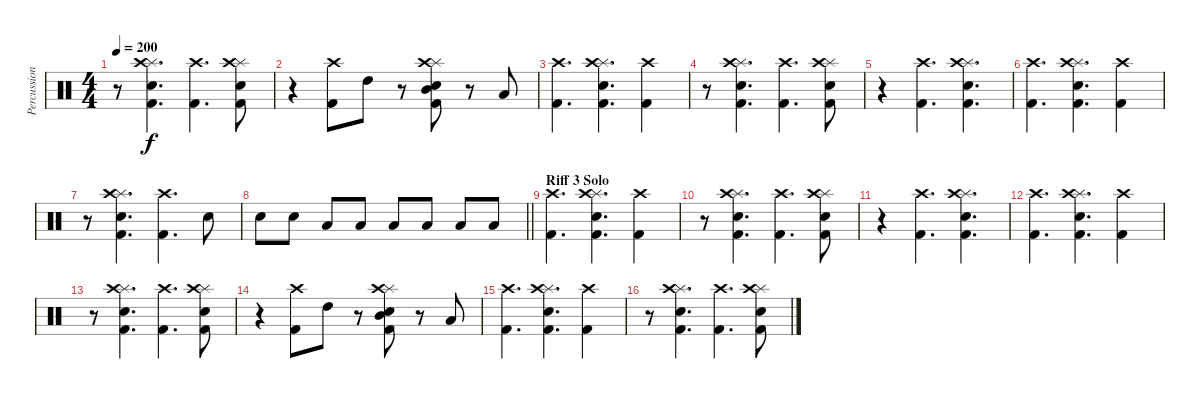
\track ("Percussion" "Percussion") {instrument percussion}
\staff {score}
\articulation defaults
\ts (4 4)
\tempo 200
\clef neutral
\ks c
r.8{dy f} ("Splash (hit)" "Crash high (hit)" "Electric Snare (hit)" "Kick (hit) 2").4{d} ("Crash high (hit)" "Kick (hit) 2").4{d} ("Splash (hit)" "Crash high (hit)" "Electric Snare (hit)" "Kick (hit) 2").8 |
r.4 ("Crash high (hit)" "Kick (hit) 2").8 "High Tom (hit)".8 r.8 ("Splash (hit)" "Mid Tom (hit)" "Crash high (hit)" "Electric Snare (hit)" "Kick (hit) 2").8 r.8 "Low Tom (hit)".8 |
("Crash high (hit)" "Kick (hit) 2").4{d} ("Splash (hit)" "Crash high (hit)" "Electric Snare (hit)" "Kick (hit) 2").4{d} ("Crash high (hit)" "Kick (hit) 2").4 |
r.8 ("Splash (hit)" "Crash high (hit)" "Electric Snare (hit)" "Kick (hit) 2").4{d} ("Crash high (hit)" "Kick (hit) 2").4{d} ("Splash (hit)" "Crash high (hit)" "Electric Snare (hit)" "Kick (hit) 2").8 |
r.4 ("Crash high (hit)" "Kick (hit) 2").4{d} ("Splash (hit)" "Crash high (hit)" "Electric Snare (hit)" "Kick (hit) 2").4{d} |
("Crash high (hit)" "Kick (hit) 2").4{d} ("Splash (hit)" "Crash high (hit)" "Electric Snare (hit)" "Kick (hit) 2").4{d} ("Crash high (hit)" "Kick (hit) 2").4 |
r.8 ("Splash (hit)" "Crash high (hit)" "Electric Snare (hit)" "Kick (hit) 2").4{d} ("Crash high (hit)" "Kick (hit) 2").4{d} "Snare (hit) 2".8 |
\barLineRight lightlight "Snare (hit) 2".8 "Snare (hit) 2".8 "Low Tom (hit)".8 "Low Tom (hit)".8 "Low Tom (hit)".8 "Low Floor Tom (hit)".8 "Low Floor Tom (hit)".8 "Low Floor Tom (hit)".8
|
\section ("" "Riff 3 Solo")
("Crash high (hit)" "Kick (hit) 2").4{d} ("Splash (hit)" "Crash high (hit)" "Electric Snare (hit)" "Kick (hit) 2").4{d} ("Crash high (hit)" "Kick (hit) 2").4 |
r.8 ("Splash (hit)" "Crash high (hit)" "Electric Snare (hit)" "Kick (hit) 2").4{d} ("Crash high (hit)" "Kick (hit) 2").4{d} ("Splash (hit)" "Crash high (hit)" "Electric Snare (hit)" "Kick (hit) 2").8 |
r.4 ("Crash high (hit)" "Kick (hit) 2").4{d} ("Splash (hit)" "Crash high (hit)" "Electric Snare (hit)" "Kick (hit) 2").4{d} |
("Crash high (hit)" "Kick (hit) 2").4{d} ("Splash (hit)" "Crash high (hit)" "Electric Snare (hit)" "Kick (hit) 2").4{d} ("Crash high (hit)" "Kick (hit) 2").4 |
r.8 ("Splash (hit)" "Crash high (hit)" "Electric Snare (hit)" "Kick (hit) 2").4{d} ("Crash high (hit)" "Kick (hit) 2").4{d} ("Splash (hit)" "Crash high (hit)" "Electric Snare (hit)" "Kick (hit) 2").8 |
r.4 ("Crash high (hit)" "Kick (hit) 2").8 "High Tom (hit)".8 r.8 ("Splash (hit)" "Mid Tom (hit)" "Crash high (hit)" "Electric Snare (hit)" "Kick (hit) 2").8 r.8 "Low Tom (hit)".8 |
("Crash high (hit)" "Kick (hit) 2").4{d} ("Splash (hit)" "Crash high (hit)" "Electric Snare (hit)" "Kick (hit) 2").4{d} ("Crash high (hit)" "Kick (hit) 2").4 |
r.8 ("Splash (hit)" "Crash high (hit)" "Electric Snare (hit)" "Kick (hit) 2").4{d} ("Crash high (hit)" "Kick (hit) 2").4{d} ("Splash (hit)" "Crash high (hit)" "Electric Snare (hit)" "Kick (hit) 2").8
